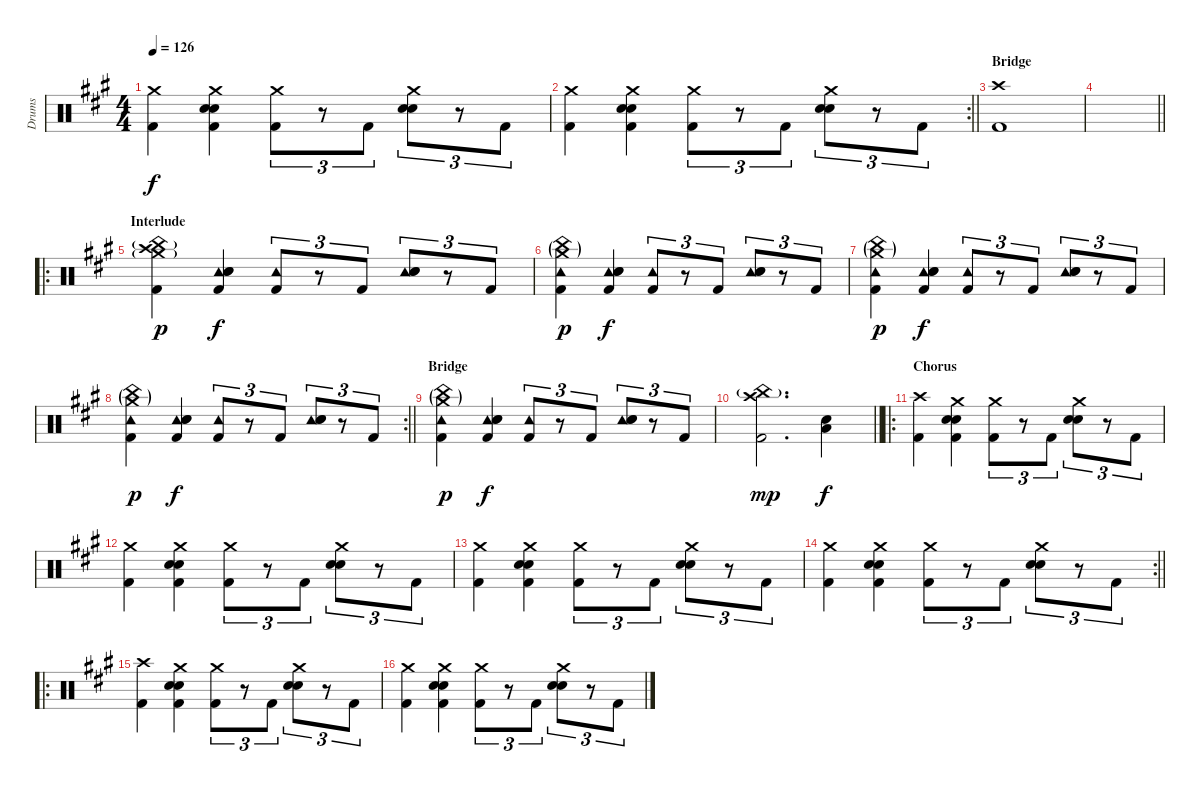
\track ("Drums" "Drums") {instrument percussion}
\staff {score}
\articulation defaults
\ts (4 4)
\tempo 126
\clef neutral
\ks a
("Crash medium (hit)" "Kick (hit) 2").4{dy f} ("Crash medium (hit)" "Electric Snare (hit)" "Hand Clap (hit)" "Kick (hit) 2").4 ("Crash medium (hit)" "Kick (hit) 2").8{tu (3 2)} r.8{tu (3 2)} "Kick (hit) 2".8{tu (3 2)} ("Crash medium (hit)" "Electric Snare (hit)" "Hand Clap (hit)").8{tu (3 2)} r.8{tu (3 2)} "Kick (hit) 2".8{tu (3 2)} |
\rc 2
\barLineRight lightlight
("Crash medium (hit)" "Kick (hit) 2").4 ("Crash medium (hit)" "Electric Snare (hit)" "Hand Clap (hit)" "Kick (hit) 2").4 ("Crash medium (hit)" "Kick (hit) 2").8{tu (3 2)} r.8{tu (3 2)} "Kick (hit) 2".8{tu (3 2)} ("Crash medium (hit)" "Electric Snare (hit)" "Hand Clap (hit)").8{tu (3 2)} r.8{tu (3 2)} "Kick (hit) 2".8{tu (3 2)} |
\section ("" "Bridge")
("Crash high (hit)" "Kick (hit) 2").1 |
\barLineRight lightlight
|
\ro
\section ("" "Interlude")
("Crash high (hit)" "China (hit)"{g} "Crash medium (hit)"{g} "Kick (hit) 2").4{dy p} ("Tambourine (hit)" "Electric Snare (hit)" "Hand Clap (hit)" "Kick (hit) 2").4{dy f} ("Tambourine (hit)" "Kick (hit) 2").8{tu (3 2)} r.8{tu (3 2)} "Kick (hit) 2".8{tu (3 2)} ("Tambourine (hit)" "Electric Snare (hit)" "Hand Clap (hit)").8{tu (3 2)} r.8{tu (3 2)} "Kick (hit) 2".8{tu (3 2)} |
("Tambourine (hit)" "China (hit)"{g} "Crash medium (hit)"{g} "Kick (hit) 2").4{dy p} ("Tambourine (hit)" "Electric Snare (hit)" "Hand Clap (hit)" "Kick (hit) 2").4{dy f} ("Tambourine (hit)" "Kick (hit) 2").8{tu (3 2)} r.8{tu (3 2)} "Kick (hit) 2".8{tu (3 2)} ("Tambourine (hit)" "Electric Snare (hit)" "Hand Clap (hit)").8{tu (3 2)} r.8{tu (3 2)} "Kick (hit) 2".8{tu (3 2)} |
("Tambourine (hit)" "China (hit)"{g} "Crash medium (hit)"{g} "Kick (hit) 2").4{dy p} ("Tambourine (hit)" "Electric Snare (hit)" "Hand Clap (hit)" "Kick (hit) 2").4{dy f} ("Tambourine (hit)" "Kick (hit) 2").8{tu (3 2)} r.8{tu (3 2)} "Kick (hit) 2".8{tu (3 2)} ("Tambourine (hit)" "Electric Snare (hit)" "Hand Clap (hit)").8{tu (3 2)} r.8{tu (3 2)} "Kick (hit) 2".8{tu (3 2)} |
\rc 2
\barLineRight lightlight
("Tambourine (hit)" "China (hit)"{g} "Crash medium (hit)"{g} "Kick (hit) 2").4{dy p} ("Tambourine (hit)" "Electric Snare (hit)" "Hand Clap (hit)" "Kick (hit) 2").4{dy f} ("Tambourine (hit)" "Kick (hit) 2").8{tu (3 2)} r.8{tu (3 2)} "Kick (hit) 2".8{tu (3 2)} ("Tambourine (hit)" "Electric Snare (hit)" "Hand Clap (hit)").8{tu (3 2)} r.8{tu (3 2)} "Kick (hit) 2".8{tu (3 2)} |
\section ("" "Bridge")
("Tambourine (hit)" "China (hit)"{g} "Crash medium (hit)"{g} "Kick (hit) 2").4{dy p} ("Tambourine (hit)" "Electric Snare (hit)" "Hand Clap (hit)" "Kick (hit) 2").4{dy f} ("Tambourine (hit)" "Kick (hit) 2").8{tu (3 2)} r.8{tu (3 2)} "Kick (hit) 2".8{tu (3 2)} ("Tambourine (hit)" "Electric Snare (hit)" "Hand Clap (hit)").8{tu (3 2)} r.8{tu (3 2)} "Kick (hit) 2".8{tu (3 2)} |
\barLineRight lightlight
("Crash high (hit)" "China (hit)"{g} "Kick (hit) 2").2{d dy mp} ("Electric Snare (hit)" "Low Floor Tom (hit)").4{dy f} |
\ro
\section ("" "Chorus")
("Crash high (hit)" "Kick (hit) 2").4 ("Crash medium (hit)" "Electric Snare (hit)" "Hand Clap (hit)" "Kick (hit) 2").4 ("Crash medium (hit)" "Kick (hit) 2").8{tu (3 2)} r.8{tu (3 2)} "Kick (hit) 2".8{tu (3 2)} ("Crash medium (hit)" "Electric Snare (hit)" "Hand Clap (hit)").8{tu (3 2)} r.8{tu (3 2)} "Kick (hit) 2".8{tu (3 2)} |
("Crash medium (hit)" "Kick (hit) 2").4 ("Crash medium (hit)" "Electric Snare (hit)" "Hand Clap (hit)" "Kick (hit) 2").4 ("Crash medium (hit)" "Kick (hit) 2").8{tu (3 2)} r.8{tu (3 2)} "Kick (hit) 2".8{tu (3 2)} ("Crash medium (hit)" "Electric Snare (hit)" "Hand Clap (hit)").8{tu (3 2)} r.8{tu (3 2)} "Kick (hit) 2".8{tu (3 2)} |
("Crash medium (hit)" "Kick (hit) 2").4 ("Crash medium (hit)" "Electric Snare (hit)" "Hand Clap (hit)" "Kick (hit) 2").4 ("Crash medium (hit)" "Kick (hit) 2").8{tu (3 2)} r.8{tu (3 2)} "Kick (hit) 2".8{tu (3 2)} ("Crash medium (hit)" "Electric Snare (hit)" "Hand Clap (hit)").8{tu (3 2)} r.8{tu (3 2)} "Kick (hit) 2".8{tu (3 2)} |
\rc 2
\barLineRight lightlight
("Crash medium (hit)" "Kick (hit) 2").4 ("Crash medium (hit)" "Electric Snare (hit)" "Hand Clap (hit)" "Kick (hit) 2").4 ("Crash medium (hit)" "Kick (hit) 2").8{tu (3 2)} r.8{tu (3 2)} "Kick (hit) 2".8{tu (3 2)} ("Crash medium (hit)" "Electric Snare (hit)" "Hand Clap (hit)").8{tu (3 2)} r.8{tu (3 2)} "Kick (hit) 2".8{tu (3 2)} |
\ro
("Crash high (hit)" "Kick (hit) 2").4 ("Crash medium (hit)" "Electric Snare (hit)" "Hand Clap (hit)" "Kick (hit) 2").4 ("Crash medium (hit)" "Kick (hit) 2").8{tu (3 2)} r.8{tu (3 2)} "Kick (hit) 2".8{tu (3 2)} ("Crash medium (hit)" "Electric Snare (hit)" "Hand Clap (hit)").8{tu (3 2)} r.8{tu (3 2)} "Kick (hit) 2".8{tu (3 2)} |
("Crash medium (hit)" "Kick (hit) 2").4 ("Crash medium (hit)" "Electric Snare (hit)" "Hand Clap (hit)" "Kick (hit) 2").4 ("Crash medium (hit)" "Kick (hit) 2").8{tu (3 2)} r.8{tu (3 2)} "Kick (hit) 2".8{tu (3 2)} ("Crash medium (hit)" "Electric Snare (hit)" "Hand Clap (hit)").8{tu (3 2)} r.8{tu (3 2)} "Kick (hit) 2".8{tu (3 2)}
